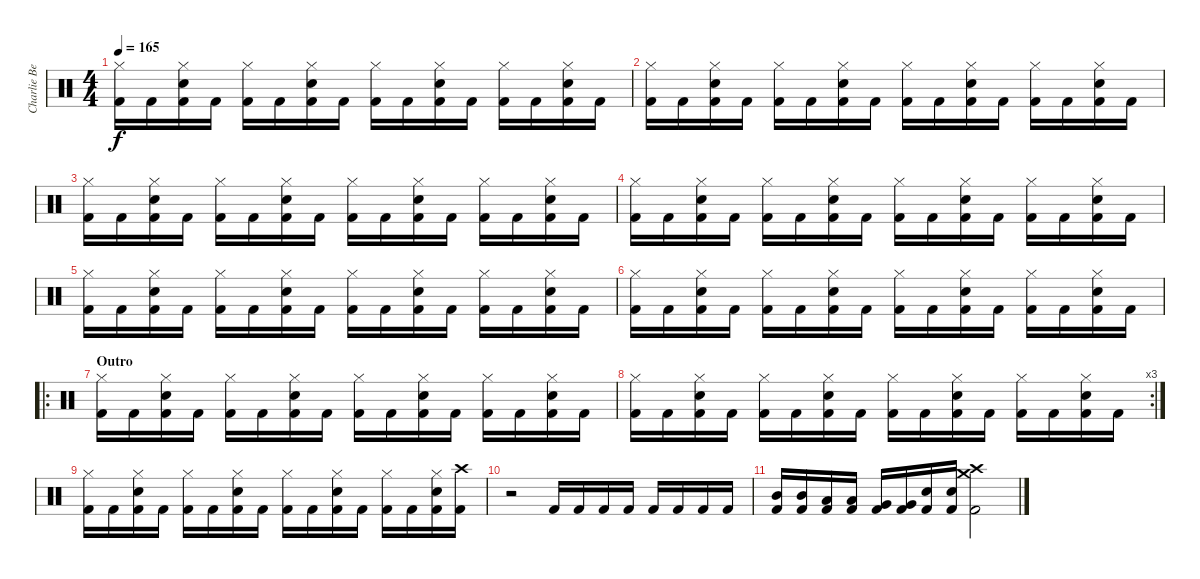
\track ("Charlie Benante" "Charlie Be") {instrument percussion}
\staff {score}
\articulation defaults
\ts (4 4)
\tempo 165
\clef neutral
\ks c
("Kick (hit) 2" "Hi-Hat (closed)").16{dy f} "Kick (hit) 2".16 ("Kick (hit) 2" "Hi-Hat (closed)" "Electric Snare (hit)").16 "Kick (hit) 2".16 ("Kick (hit) 2" "Hi-Hat (closed)").16 "Kick (hit) 2".16 ("Kick (hit) 2" "Hi-Hat (closed)" "Electric Snare (hit)").16 "Kick (hit) 2".16 ("Kick (hit) 2" "Hi-Hat (closed)").16 "Kick (hit) 2".16 ("Kick (hit) 2" "Hi-Hat (closed)" "Electric Snare (hit)").16 "Kick (hit) 2".16 ("Kick (hit) 2" "Hi-Hat (closed)").16 "Kick (hit) 2".16 ("Kick (hit) 2" "Hi-Hat (closed)" "Electric Snare (hit)").16 "Kick (hit) 2".16 |
("Kick (hit) 2" "Hi-Hat (closed)").16 "Kick (hit) 2".16 ("Kick (hit) 2" "Hi-Hat (closed)" "Electric Snare (hit)").16 "Kick (hit) 2".16 ("Kick (hit) 2" "Hi-Hat (closed)").16 "Kick (hit) 2".16 ("Kick (hit) 2" "Hi-Hat (closed)" "Electric Snare (hit)").16 "Kick (hit) 2".16 ("Kick (hit) 2" "Hi-Hat (closed)").16 "Kick (hit) 2".16 ("Kick (hit) 2" "Hi-Hat (closed)" "Electric Snare (hit)").16 "Kick (hit) 2".16 ("Kick (hit) 2" "Hi-Hat (closed)").16 "Kick (hit) 2".16 ("Kick (hit) 2" "Hi-Hat (closed)" "Electric Snare (hit)").16 "Kick (hit) 2".16 |
("Kick (hit) 2" "Hi-Hat (closed)").16 "Kick (hit) 2".16 ("Kick (hit) 2" "Hi-Hat (closed)" "Electric Snare (hit)").16 "Kick (hit) 2".16 ("Kick (hit) 2" "Hi-Hat (closed)").16 "Kick (hit) 2".16 ("Kick (hit) 2" "Hi-Hat (closed)" "Electric Snare (hit)").16 "Kick (hit) 2".16 ("Kick (hit) 2" "Hi-Hat (closed)").16 "Kick (hit) 2".16 ("Kick (hit) 2" "Hi-Hat (closed)" "Electric Snare (hit)").16 "Kick (hit) 2".16 ("Kick (hit) 2" "Hi-Hat (closed)").16 "Kick (hit) 2".16 ("Kick (hit) 2" "Hi-Hat (closed)" "Electric Snare (hit)").16 "Kick (hit) 2".16 |
("Kick (hit) 2" "Hi-Hat (closed)").16 "Kick (hit) 2".16 ("Kick (hit) 2" "Hi-Hat (closed)" "Electric Snare (hit)").16 "Kick (hit) 2".16 ("Kick (hit) 2" "Hi-Hat (closed)").16 "Kick (hit) 2".16 ("Kick (hit) 2" "Hi-Hat (closed)" "Electric Snare (hit)").16 "Kick (hit) 2".16 ("Kick (hit) 2" "Hi-Hat (closed)").16 "Kick (hit) 2".16 ("Kick (hit) 2" "Hi-Hat (closed)" "Electric Snare (hit)").16 "Kick (hit) 2".16 ("Kick (hit) 2" "Hi-Hat (closed)").16 "Kick (hit) 2".16 ("Kick (hit) 2" "Hi-Hat (closed)" "Electric Snare (hit)").16 "Kick (hit) 2".16 |
("Kick (hit) 2" "Hi-Hat (closed)").16 "Kick (hit) 2".16 ("Kick (hit) 2" "Hi-Hat (closed)" "Electric Snare (hit)").16 "Kick (hit) 2".16 ("Kick (hit) 2" "Hi-Hat (closed)").16 "Kick (hit) 2".16 ("Kick (hit) 2" "Hi-Hat (closed)" "Electric Snare (hit)").16 "Kick (hit) 2".16 ("Kick (hit) 2" "Hi-Hat (closed)").16 "Kick (hit) 2".16 ("Kick (hit) 2" "Hi-Hat (closed)" "Electric Snare (hit)").16 "Kick (hit) 2".16 ("Kick (hit) 2" "Hi-Hat (closed)").16 "Kick (hit) 2".16 ("Kick (hit) 2" "Hi-Hat (closed)" "Electric Snare (hit)").16 "Kick (hit) 2".16 |
("Kick (hit) 2" "Hi-Hat (closed)").16 "Kick (hit) 2".16 ("Kick (hit) 2" "Hi-Hat (closed)" "Electric Snare (hit)").16 "Kick (hit) 2".16 ("Kick (hit) 2" "Hi-Hat (closed)").16 "Kick (hit) 2".16 ("Kick (hit) 2" "Hi-Hat (closed)" "Electric Snare (hit)").16 "Kick (hit) 2".16 ("Kick (hit) 2" "Hi-Hat (closed)").16 "Kick (hit) 2".16 ("Kick (hit) 2" "Hi-Hat (closed)" "Electric Snare (hit)").16 "Kick (hit) 2".16 ("Kick (hit) 2" "Hi-Hat (closed)").16 "Kick (hit) 2".16 ("Kick (hit) 2" "Hi-Hat (closed)" "Electric Snare (hit)").16 "Kick (hit) 2".16 |
\ro
\section ("" "Outro")
("Kick (hit) 2" "Hi-Hat (closed)").16 "Kick (hit) 2".16 ("Kick (hit) 2" "Hi-Hat (closed)" "Electric Snare (hit)").16 "Kick (hit) 2".16 ("Kick (hit) 2" "Hi-Hat (closed)").16 "Kick (hit) 2".16 ("Kick (hit) 2" "Hi-Hat (closed)" "Electric Snare (hit)").16 "Kick (hit) 2".16 ("Kick (hit) 2" "Hi-Hat (closed)").16 "Kick (hit) 2".16 ("Kick (hit) 2" "Hi-Hat (closed)" "Electric Snare (hit)").16 "Kick (hit) 2".16 ("Kick (hit) 2" "Hi-Hat (closed)").16 "Kick (hit) 2".16 ("Kick (hit) 2" "Hi-Hat (closed)" "Electric Snare (hit)").16 "Kick (hit) 2".16 |
\rc 3
("Kick (hit) 2" "Hi-Hat (closed)").16 "Kick (hit) 2".16 ("Kick (hit) 2" "Hi-Hat (closed)" "Electric Snare (hit)").16 "Kick (hit) 2".16 ("Kick (hit) 2" "Hi-Hat (closed)").16 "Kick (hit) 2".16 ("Kick (hit) 2" "Hi-Hat (closed)" "Electric Snare (hit)").16 "Kick (hit) 2".16 ("Kick (hit) 2" "Hi-Hat (closed)").16 "Kick (hit) 2".16 ("Kick (hit) 2" "Hi-Hat (closed)" "Electric Snare (hit)").16 "Kick (hit) 2".16 ("Kick (hit) 2" "Hi-Hat (closed)").16 "Kick (hit) 2".16 ("Kick (hit) 2" "Hi-Hat (closed)" "Electric Snare (hit)").16 "Kick (hit) 2".16 |
("Kick (hit) 2" "Hi-Hat (closed)").16 "Kick (hit) 2".16 ("Kick (hit) 2" "Hi-Hat (closed)" "Electric Snare (hit)").16 "Kick (hit) 2".16 ("Kick (hit) 2" "Hi-Hat (closed)").16 "Kick (hit) 2".16 ("Kick (hit) 2" "Hi-Hat (closed)" "Electric Snare (hit)").16 "Kick (hit) 2".16 ("Kick (hit) 2" "Hi-Hat (closed)").16 "Kick (hit) 2".16 ("Kick (hit) 2" "Hi-Hat (closed)" "Electric Snare (hit)").16 "Kick (hit) 2".16 ("Kick (hit) 2" "Hi-Hat (closed)").16 "Kick (hit) 2".16 ("Kick (hit) 2" "Hi-Hat (closed)" "Electric Snare (hit)").16 ("Kick (hit) 2" "Crash high (hit)").16 |
r.2 "Kick (hit) 2".16 "Kick (hit) 2".16 "Kick (hit) 2".16 "Kick (hit) 2".16 "Kick (hit) 2".16 "Kick (hit) 2".16 "Kick (hit) 2".16 "Kick (hit) 2".16 |
("Kick (hit) 2" "Mid Tom (hit)").16 ("Kick (hit) 2" "Mid Tom (hit)").16 ("Kick (hit) 2" "Low Tom (hit)").16 ("Kick (hit) 2" "Low Tom (hit)").16 ("Kick (hit) 2" "Very Low Tom (hit)").16 ("Kick (hit) 2" "Very Low Tom (hit)").16 ("Kick (hit) 2" "Electric Snare (hit)").16 ("Kick (hit) 2" "Electric Snare (hit)").16 ("Kick (hit) 2" "Crash high (hit)" "Crash medium (hit)").2
